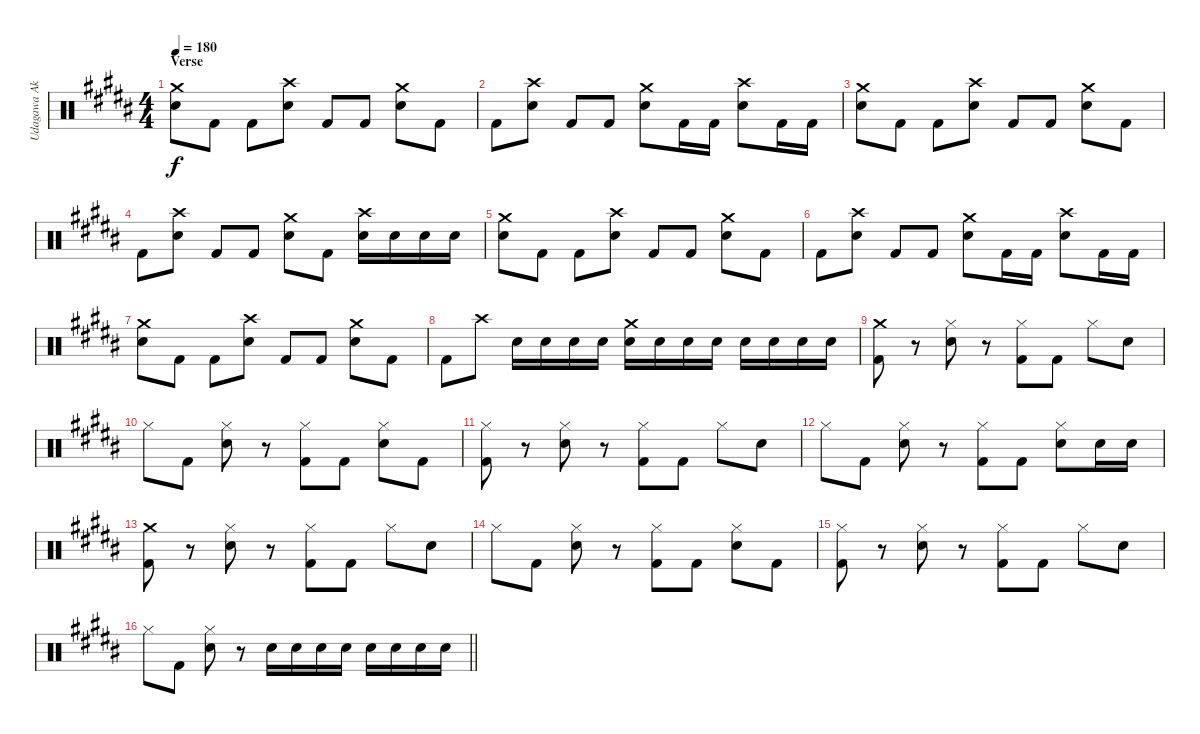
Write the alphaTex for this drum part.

\track ("Udagawa Ako" "Udagawa Ak") {instrument percussion}
\staff {score}
\articulation defaults
\ts (4 4)
\section ("" "Verse")
\tempo 180
\clef neutral
\ks b
("Crash medium (hit)" "Electric Snare (hit)").8{dy f} "Kick (hit) 2".8 "Kick (hit) 2".8 ("Crash high (hit)" "Electric Snare (hit)").8 "Kick (hit) 2".8 "Kick (hit) 2".8 ("Crash medium (hit)" "Electric Snare (hit)").8 "Kick (hit) 2".8 |
"Kick (hit) 2".8 ("Crash high (hit)" "Electric Snare (hit)").8 "Kick (hit) 2".8 "Kick (hit) 2".8 ("Crash medium (hit)" "Electric Snare (hit)").8 "Kick (hit) 2".16 "Kick (hit) 2".16 ("Crash high (hit)" "Electric Snare (hit)").8 "Kick (hit) 2".16 "Kick (hit) 2".16 |
("Crash medium (hit)" "Electric Snare (hit)").8 "Kick (hit) 2".8 "Kick (hit) 2".8 ("Crash high (hit)" "Electric Snare (hit)").8 "Kick (hit) 2".8 "Kick (hit) 2".8 ("Crash medium (hit)" "Electric Snare (hit)").8 "Kick (hit) 2".8 |
"Kick (hit) 2".8 ("Crash high (hit)" "Electric Snare (hit)").8 "Kick (hit) 2".8 "Kick (hit) 2".8 ("Crash medium (hit)" "Electric Snare (hit)").8 "Kick (hit) 2".8 ("Crash high (hit)" "Electric Snare (hit)").16 "Electric Snare (hit)".16 "Electric Snare (hit)".16 "Electric Snare (hit)".16 |
("Crash medium (hit)" "Electric Snare (hit)").8 "Kick (hit) 2".8 "Kick (hit) 2".8 ("Crash high (hit)" "Electric Snare (hit)").8 "Kick (hit) 2".8 "Kick (hit) 2".8 ("Crash medium (hit)" "Electric Snare (hit)").8 "Kick (hit) 2".8 |
"Kick (hit) 2".8 ("Crash high (hit)" "Electric Snare (hit)").8 "Kick (hit) 2".8 "Kick (hit) 2".8 ("Crash medium (hit)" "Electric Snare (hit)").8 "Kick (hit) 2".16 "Kick (hit) 2".16 ("Crash high (hit)" "Electric Snare (hit)").8 "Kick (hit) 2".16 "Kick (hit) 2".16 |
("Crash medium (hit)" "Electric Snare (hit)").8 "Kick (hit) 2".8 "Kick (hit) 2".8 ("Crash high (hit)" "Electric Snare (hit)").8 "Kick (hit) 2".8 "Kick (hit) 2".8 ("Crash medium (hit)" "Electric Snare (hit)").8 "Kick (hit) 2".8 |
"Kick (hit) 2".8 "Crash high (hit)".8 "Electric Snare (hit)".16 "Electric Snare (hit)".16 "Electric Snare (hit)".16 "Electric Snare (hit)".16 ("Crash medium (hit)" "Electric Snare (hit)").16 "Electric Snare (hit)".16 "Electric Snare (hit)".16 "Electric Snare (hit)".16 "Electric Snare (hit)".16 "Electric Snare (hit)".16 "Electric Snare (hit)".16 "Electric Snare (hit)".16 |
("Crash medium (hit)" "Kick (hit) 2").8 r.8 ("Hi-Hat (closed)" "Electric Snare (hit)").8 r.8 ("Hi-Hat (closed)" "Kick (hit) 2").8 "Kick (hit) 2".8 "Hi-Hat (closed)".8 "Electric Snare (hit)".8 |
"Hi-Hat (closed)".8 "Kick (hit) 2".8 ("Hi-Hat (closed)" "Electric Snare (hit)").8 r.8 ("Hi-Hat (closed)" "Kick (hit) 2").8 "Kick (hit) 2".8 ("Hi-Hat (closed)" "Electric Snare (hit)").8 "Kick (hit) 2".8 |
("Hi-Hat (closed)" "Kick (hit) 2").8 r.8 ("Hi-Hat (closed)" "Electric Snare (hit)").8 r.8 ("Hi-Hat (closed)" "Kick (hit) 2").8 "Kick (hit) 2".8 "Hi-Hat (closed)".8 "Electric Snare (hit)".8 |
"Hi-Hat (closed)".8 "Kick (hit) 2".8 ("Hi-Hat (closed)" "Electric Snare (hit)").8 r.8 ("Hi-Hat (closed)" "Kick (hit) 2").8 "Kick (hit) 2".8 ("Hi-Hat (closed)" "Electric Snare (hit)").8 "Electric Snare (hit)".16 "Electric Snare (hit)".16 |
("Crash medium (hit)" "Kick (hit) 2").8 r.8 ("Hi-Hat (closed)" "Electric Snare (hit)").8 r.8 ("Hi-Hat (closed)" "Kick (hit) 2").8 "Kick (hit) 2".8 "Hi-Hat (closed)".8 "Electric Snare (hit)".8 |
"Hi-Hat (closed)".8 "Kick (hit) 2".8 ("Hi-Hat (closed)" "Electric Snare (hit)").8 r.8 ("Hi-Hat (closed)" "Kick (hit) 2").8 "Kick (hit) 2".8 ("Hi-Hat (closed)" "Electric Snare (hit)").8 "Kick (hit) 2".8 |
("Hi-Hat (closed)" "Kick (hit) 2").8 r.8 ("Hi-Hat (closed)" "Electric Snare (hit)").8 r.8 ("Hi-Hat (closed)" "Kick (hit) 2").8 "Kick (hit) 2".8 "Hi-Hat (closed)".8 "Electric Snare (hit)".8 |
\barLineRight lightlight "Hi-Hat (closed)".8 "Kick (hit) 2".8
("Hi-Hat (closed)" "Electric Snare (hit)").8 r.8 "Electric Snare (hit)".16 "Electric Snare (hit)".16 "Electric Snare (hit)".16 "Electric Snare (hit)".16 "Electric Snare (hit)".16 "Electric Snare (hit)".16 "Electric Snare (hit)".16 "Electric Snare (hit)".16
